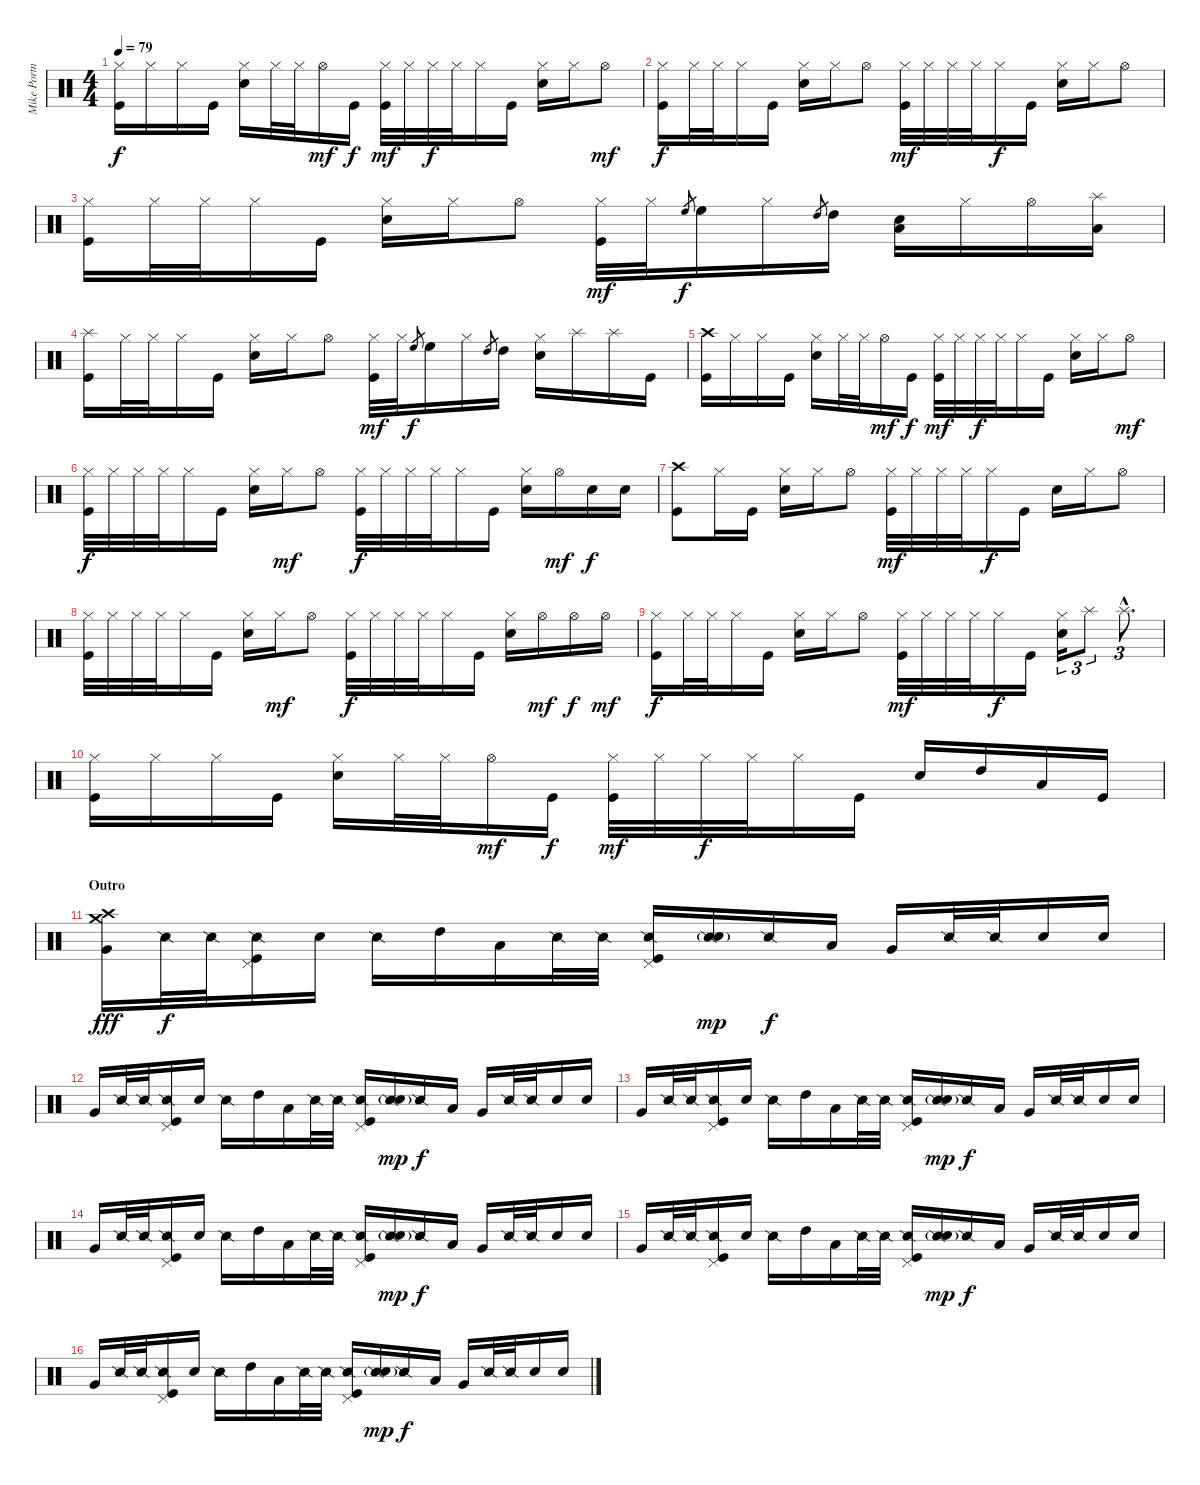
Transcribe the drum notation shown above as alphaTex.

\track ("Mike Portnoy" "Mike Portn") {instrument percussion}
\staff {score}
\articulation defaults
\ts (4 4)
\tempo 79
\clef neutral
\ks c
("Hi-Hat (closed)" "Kick (hit)").16{dy f} "Hi-Hat (closed)".16 "Hi-Hat (closed)".16 "Kick (hit)".16 ("Hi-Hat (closed)" "Electric Snare (hit)").16 "Hi-Hat (closed)".32 "Hi-Hat (closed)".32 "Hi-Hat (open)".16{dy mf} "Kick (hit)".16{dy f} ("Hi-Hat (closed)" "Kick (hit)").32{dy mf} "Hi-Hat (closed)".32 "Hi-Hat (closed)".32{dy f} "Hi-Hat (closed)".32 "Hi-Hat (closed)".16 "Kick (hit)".16 ("Hi-Hat (closed)" "Electric Snare (hit)").16 "Hi-Hat (closed)".16 "Hi-Hat (open)".8{dy mf} |
("Hi-Hat (closed)" "Kick (hit)").16{dy f} "Hi-Hat (closed)".32 "Hi-Hat (closed)".32 "Hi-Hat (closed)".16 "Kick (hit)".16 ("Hi-Hat (closed)" "Electric Snare (hit)").16 "Hi-Hat (closed)".16 "Hi-Hat (open)".8 ("Hi-Hat (closed)" "Kick (hit)").32{dy mf} "Hi-Hat (closed)".32 "Hi-Hat (closed)".32 "Hi-Hat (closed)".32 "Hi-Hat (closed)".16{dy f} "Kick (hit)".16 ("Hi-Hat (closed)" "Electric Snare (hit)").16 "Hi-Hat (closed)".16 "Hi-Hat (open)".8 |
("Hi-Hat (closed)" "Kick (hit)").16 "Hi-Hat (closed)".32 "Hi-Hat (closed)".32 "Hi-Hat (closed)".16 "Kick (hit)".16 ("Hi-Hat (closed)" "Electric Snare (hit)").16 "Hi-Hat (closed)".16 "Hi-Hat (open)".8 ("Hi-Hat (closed)" "Kick (hit)").32{dy mf} "Hi-Hat (closed)".32 "High Floor Tom (hit)".8{gr dy f} "High Floor Tom (hit)".16 "Hi-Hat (closed)".16 "High Tom (hit)".8{gr} "High Tom (hit)".16 ("Low Tom (hit)" "Electric Snare (hit)").16 "Hi-Hat (closed)".16 "Hi-Hat (open)".16 ("Splash (hit)" "Low Tom (hit)").16 |
("Splash (hit)" "Kick (hit)").16 "Hi-Hat (closed)".32 "Hi-Hat (closed)".32 "Hi-Hat (closed)".16 "Kick (hit)".16 ("Hi-Hat (closed)" "Electric Snare (hit)").16 "Hi-Hat (closed)".16 "Hi-Hat (open)".8 ("Hi-Hat (closed)" "Kick (hit)").32{dy mf} "Hi-Hat (closed)".32 "High Floor Tom (hit)".8{gr dy f} "High Floor Tom (hit)".16 "Hi-Hat (closed)".16 "High Tom (hit)".8{gr} "High Tom (hit)".16 ("Hi-Hat (closed)" "Electric Snare (hit)").16 "Splash (hit)".16 "Splash (hit)".16 "Kick (hit)".16 |
("Crash high (hit)" "Kick (hit)").16 "Hi-Hat (closed)".16 "Hi-Hat (closed)".16 "Kick (hit)".16 ("Hi-Hat (closed)" "Electric Snare (hit)").16 "Hi-Hat (closed)".32 "Hi-Hat (closed)".32 "Hi-Hat (open)".16{dy mf} "Kick (hit)".16{dy f} ("Hi-Hat (closed)" "Kick (hit)").32{dy mf} "Hi-Hat (closed)".32 "Hi-Hat (closed)".32{dy f} "Hi-Hat (closed)".32 "Hi-Hat (closed)".16 "Kick (hit)".16 ("Hi-Hat (closed)" "Electric Snare (hit)").16 "Hi-Hat (closed)".16 "Hi-Hat (open)".8{dy mf} |
("Hi-Hat (closed)" "Kick (hit)").32{dy f} "Hi-Hat (closed)".32 "Hi-Hat (closed)".32 "Hi-Hat (closed)".32 "Hi-Hat (closed)".16 "Kick (hit)".16 ("Hi-Hat (closed)" "Electric Snare (hit)").16 "Hi-Hat (closed)".16{dy mf} "Hi-Hat (open)".8 ("Hi-Hat (closed)" "Kick (hit)").32{dy f} "Hi-Hat (closed)".32 "Hi-Hat (closed)".32 "Hi-Hat (closed)".32 "Hi-Hat (closed)".16 "Kick (hit)".16 ("Hi-Hat (closed)" "Electric Snare (hit)").16 "Hi-Hat (open)".16{dy mf} "Electric Snare (hit)".16{dy f} "Electric Snare (hit)".16 |
("Crash high (hit)" "Kick (hit)").8 "Hi-Hat (closed)".16 "Kick (hit)".16 ("Hi-Hat (closed)" "Electric Snare (hit)").16 "Hi-Hat (closed)".16 "Hi-Hat (open)".8 ("Hi-Hat (closed)" "Kick (hit)").32{dy mf} "Hi-Hat (closed)".32 "Hi-Hat (closed)".32 "Hi-Hat (closed)".32 "Hi-Hat (closed)".16{dy f} "Kick (hit)".16 "Electric Snare (hit)".16 "Hi-Hat (closed)".16 "Hi-Hat (open)".8 |
("Hi-Hat (closed)" "Kick (hit)").32 "Hi-Hat (closed)".32 "Hi-Hat (closed)".32 "Hi-Hat (closed)".32 "Hi-Hat (closed)".16 "Kick (hit)".16 ("Hi-Hat (closed)" "Electric Snare (hit)").16 "Hi-Hat (closed)".16{dy mf} "Hi-Hat (open)".8 ("Hi-Hat (closed)" "Kick (hit)").32{dy f} "Hi-Hat (closed)".32 "Hi-Hat (closed)".32 "Hi-Hat (closed)".32 "Hi-Hat (closed)".16 "Kick (hit)".16 ("Hi-Hat (closed)" "Electric Snare (hit)").16 "Hi-Hat (open)".16{dy mf} "Hi-Hat (open)".16{dy f} "Hi-Hat (open)".16{dy mf} |
("Hi-Hat (closed)" "Kick (hit)").16{dy f} "Hi-Hat (closed)".32 "Hi-Hat (closed)".32 "Hi-Hat (closed)".16 "Kick (hit)".16 ("Hi-Hat (closed)" "Electric Snare (hit)").16 "Hi-Hat (closed)".16 "Hi-Hat (open)".8 ("Hi-Hat (closed)" "Kick (hit)").32{dy mf} "Hi-Hat (closed)".32 "Hi-Hat (closed)".32 "Hi-Hat (closed)".32 "Hi-Hat (closed)".16{dy f} "Kick (hit)".16 ("Hi-Hat (closed)" "Electric Snare (hit)").16{tu (3 2)} "Splash (hit)".8{tu (3 2)} "Splash (hit)"{hac}.8{d tu (3 2)} |
("Hi-Hat (closed)" "Kick (hit)").16 "Hi-Hat (closed)".16 "Hi-Hat (closed)".16 "Kick (hit)".16 ("Hi-Hat (closed)" "Electric Snare (hit)").16 "Hi-Hat (closed)".32 "Hi-Hat (closed)".32 "Hi-Hat (open)".16{dy mf} "Kick (hit)".16{dy f} ("Hi-Hat (closed)" "Kick (hit)").32{dy mf} "Hi-Hat (closed)".32 "Hi-Hat (closed)".32{dy f} "Hi-Hat (closed)".32 "Hi-Hat (closed)".16 "Kick (hit)".16 "Electric Snare (hit)".16 "High Tom (hit)".16 "Low Tom (hit)".16 "Kick (hit)".16 |
\section ("" "Outro")
("Crash high (hit)" "Crash medium (hit)" "Very Low Tom (hit)").16{dy fff volume 11} "Snare (side stick) 2".32{dy f} "Snare (side stick) 2".32 ("Snare (side stick) 2" "Pedal Hi-Hat (hit)" "Kick (hit)").16 "Electric Snare (hit)".16 "Snare (side stick) 2".16 "High Tom (hit)".16 "Low Tom (hit)".16 "Snare (side stick) 2".32 "Snare (side stick) 2".32 ("Snare (side stick) 2" "Pedal Hi-Hat (hit)" "Kick (hit)").16 ("Snare (side stick) 2" "Electric Snare (hit)"{g}).16{dy mp} "Snare (side stick) 2".16{dy f} "Low Tom (hit)".16 "Very Low Tom (hit)".16 "Snare (side stick) 2".32 "Snare (side stick) 2".32 "Electric Snare (hit)".16 "Electric Snare (hit)".16 |
"Very Low Tom (hit)".16 "Snare (side stick) 2".32 "Snare (side stick) 2".32 ("Snare (side stick) 2" "Pedal Hi-Hat (hit)" "Kick (hit)").16 "Electric Snare (hit)".16 "Snare (side stick) 2".16 "High Tom (hit)".16 "Low Tom (hit)".16 "Snare (side stick) 2".32 "Snare (side stick) 2".32 ("Snare (side stick) 2" "Pedal Hi-Hat (hit)" "Kick (hit)").16 ("Snare (side stick) 2" "Electric Snare (hit)"{g}).16{dy mp} "Snare (side stick) 2".16{dy f} "Low Tom (hit)".16 "Very Low Tom (hit)".16 "Snare (side stick) 2".32 "Snare (side stick) 2".32 "Electric Snare (hit)".16 "Electric Snare (hit)".16 |
"Very Low Tom (hit)".16 "Snare (side stick) 2".32 "Snare (side stick) 2".32 ("Snare (side stick) 2" "Pedal Hi-Hat (hit)" "Kick (hit)").16 "Electric Snare (hit)".16 "Snare (side stick) 2".16 "High Tom (hit)".16 "Low Tom (hit)".16 "Snare (side stick) 2".32 "Snare (side stick) 2".32 ("Snare (side stick) 2" "Pedal Hi-Hat (hit)" "Kick (hit)").16 ("Snare (side stick) 2" "Electric Snare (hit)"{g}).16{dy mp} "Snare (side stick) 2".16{dy f} "Low Tom (hit)".16 "Very Low Tom (hit)".16 "Snare (side stick) 2".32 "Snare (side stick) 2".32 "Electric Snare (hit)".16 "Electric Snare (hit)".16 |
"Very Low Tom (hit)".16 "Snare (side stick) 2".32 "Snare (side stick) 2".32 ("Snare (side stick) 2" "Pedal Hi-Hat (hit)" "Kick (hit)").16 "Electric Snare (hit)".16 "Snare (side stick) 2".16 "High Tom (hit)".16 "Low Tom (hit)".16 "Snare (side stick) 2".32 "Snare (side stick) 2".32 ("Snare (side stick) 2" "Pedal Hi-Hat (hit)" "Kick (hit)").16 ("Snare (side stick) 2" "Electric Snare (hit)"{g}).16{dy mp} "Snare (side stick) 2".16{dy f} "Low Tom (hit)".16 "Very Low Tom (hit)".16 "Snare (side stick) 2".32 "Snare (side stick) 2".32 "Electric Snare (hit)".16 "Electric Snare (hit)".16 |
"Very Low Tom (hit)".16 "Snare (side stick) 2".32 "Snare (side stick) 2".32 ("Snare (side stick) 2" "Pedal Hi-Hat (hit)" "Kick (hit)").16 "Electric Snare (hit)".16 "Snare (side stick) 2".16 "High Tom (hit)".16 "Low Tom (hit)".16 "Snare (side stick) 2".32 "Snare (side stick) 2".32 ("Snare (side stick) 2" "Pedal Hi-Hat (hit)" "Kick (hit)").16 ("Snare (side stick) 2" "Electric Snare (hit)"{g}).16{dy mp} "Snare (side stick) 2".16{dy f} "Low Tom (hit)".16 "Very Low Tom (hit)".16 "Snare (side stick) 2".32 "Snare (side stick) 2".32 "Electric Snare (hit)".16 "Electric Snare (hit)".16 |
"Very Low Tom (hit)".16 "Snare (side stick) 2".32 "Snare (side stick) 2".32 ("Snare (side stick) 2" "Pedal Hi-Hat (hit)" "Kick (hit)").16 "Electric Snare (hit)".16 "Snare (side stick) 2".16 "High Tom (hit)".16 "Low Tom (hit)".16 "Snare (side stick) 2".32 "Snare (side stick) 2".32 ("Snare (side stick) 2" "Pedal Hi-Hat (hit)" "Kick (hit)").16 ("Snare (side stick) 2" "Electric Snare (hit)"{g}).16{dy mp} "Snare (side stick) 2".16{dy f} "Low Tom (hit)".16 "Very Low Tom (hit)".16 "Snare (side stick) 2".32 "Snare (side stick) 2".32 "Electric Snare (hit)".16 "Electric Snare (hit)".16
